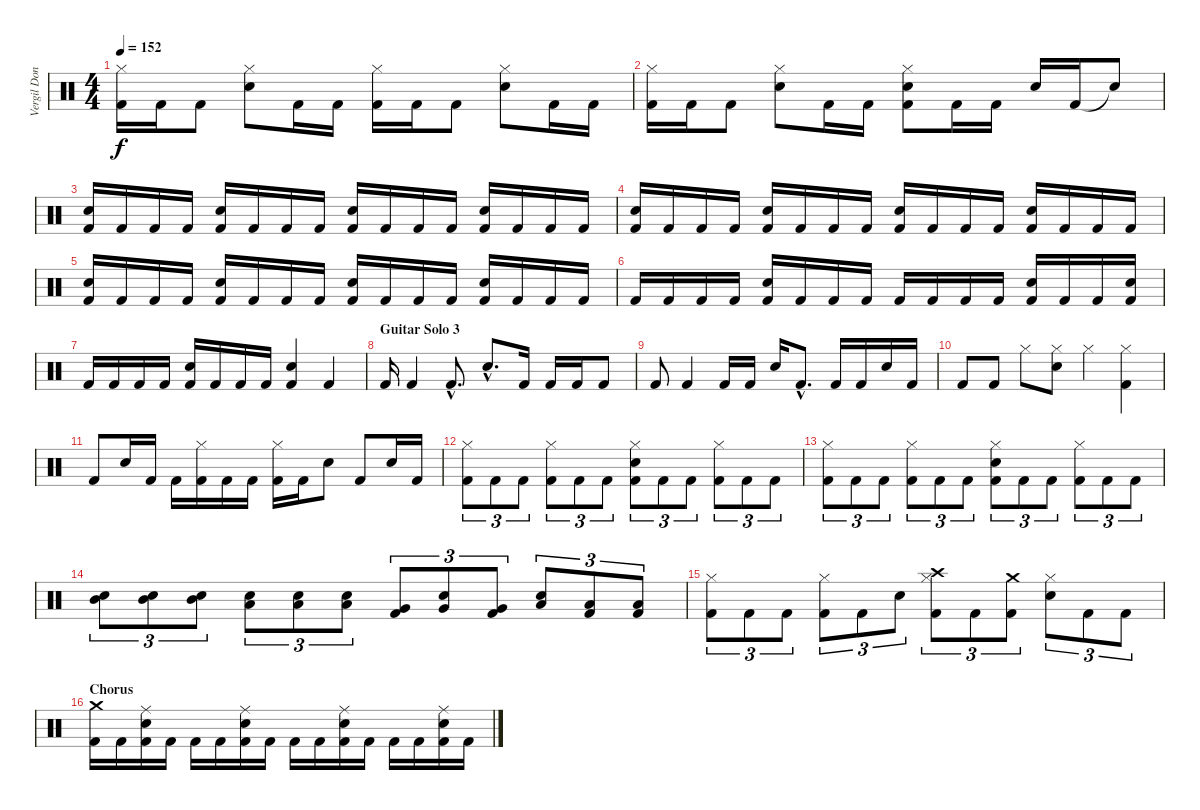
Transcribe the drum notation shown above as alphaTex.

\track ("Vergil Donati" "Vergil Don") {instrument percussion}
\staff {score}
\articulation defaults
\ts (4 4)
\tempo 152
\clef neutral
\ks c
("Hi-Hat (closed)" "Kick (hit) 2").16{dy f} "Kick (hit) 2".16 "Kick (hit) 2".8 ("Electric Snare (hit)" "Hi-Hat (closed)").8 "Kick (hit) 2".16 "Kick (hit) 2".16 ("Hi-Hat (closed)" "Kick (hit) 2").16 "Kick (hit) 2".16 "Kick (hit) 2".8 ("Electric Snare (hit)" "Hi-Hat (closed)").8 "Kick (hit) 2".16 "Kick (hit) 2".16 |
("Hi-Hat (closed)" "Kick (hit) 2").16 "Kick (hit) 2".16 "Kick (hit) 2".8 ("Electric Snare (hit)" "Hi-Hat (closed)").8 "Kick (hit) 2".16 "Kick (hit) 2".16 ("Electric Snare (hit)" "Hi-Hat (closed)" "Kick (hit) 2").8 "Kick (hit) 2".16 "Kick (hit) 2".16 "Electric Snare (hit)".16 "Kick (hit) 2".16 "Snare (hit)"{t}.8 |
("Electric Snare (hit)" "Kick (hit) 2").16 "Kick (hit) 2".16 "Kick (hit) 2".16 "Kick (hit) 2".16 ("Electric Snare (hit)" "Kick (hit) 2").16 "Kick (hit) 2".16 "Kick (hit) 2".16 "Kick (hit) 2".16 ("Electric Snare (hit)" "Kick (hit) 2").16 "Kick (hit) 2".16 "Kick (hit) 2".16 "Kick (hit) 2".16 ("Electric Snare (hit)" "Kick (hit) 2").16 "Kick (hit) 2".16 "Kick (hit) 2".16 "Kick (hit) 2".16 |
("Electric Snare (hit)" "Kick (hit) 2").16 "Kick (hit) 2".16 "Kick (hit) 2".16 "Kick (hit) 2".16 ("Electric Snare (hit)" "Kick (hit) 2").16 "Kick (hit) 2".16 "Kick (hit) 2".16 "Kick (hit) 2".16 ("Electric Snare (hit)" "Kick (hit) 2").16 "Kick (hit) 2".16 "Kick (hit) 2".16 "Kick (hit) 2".16 ("Electric Snare (hit)" "Kick (hit) 2").16 "Kick (hit) 2".16 "Kick (hit) 2".16 "Kick (hit) 2".16 |
("Electric Snare (hit)" "Kick (hit) 2").16 "Kick (hit) 2".16 "Kick (hit) 2".16 "Kick (hit) 2".16 ("Electric Snare (hit)" "Kick (hit) 2").16 "Kick (hit) 2".16 "Kick (hit) 2".16 "Kick (hit) 2".16 ("Electric Snare (hit)" "Kick (hit) 2").16 "Kick (hit) 2".16 "Kick (hit) 2".16 "Kick (hit) 2".16 ("Electric Snare (hit)" "Kick (hit) 2").16 "Kick (hit) 2".16 "Kick (hit) 2".16 "Kick (hit) 2".16 |
"Kick (hit) 2".16 "Kick (hit) 2".16 "Kick (hit) 2".16 "Kick (hit) 2".16 ("Electric Snare (hit)" "Kick (hit) 2").16 "Kick (hit) 2".16 "Kick (hit) 2".16 "Kick (hit) 2".16 "Kick (hit) 2".16 "Kick (hit) 2".16 "Kick (hit) 2".16 "Kick (hit) 2".16 ("Electric Snare (hit)" "Kick (hit) 2").16 "Kick (hit) 2".16 "Kick (hit) 2".16 ("Electric Snare (hit)" "Kick (hit) 2").16 |
"Kick (hit) 2".16 "Kick (hit) 2".16 "Kick (hit) 2".16 "Kick (hit) 2".16 ("Electric Snare (hit)" "Kick (hit) 2").16 "Kick (hit) 2".16 "Kick (hit) 2".16 "Kick (hit) 2".16 ("Electric Snare (hit)" "Kick (hit) 2").4 "Kick (hit) 2".4 |
\section ("" "Guitar Solo 3")
"Kick (hit) 2".16 "Kick (hit) 2".4 "Kick (hit) 2"{hac}.8{d} "Electric Snare (hit)"{hac}.8{d} "Kick (hit) 2".16 "Kick (hit) 2".16 "Kick (hit) 2".16 "Kick (hit) 2".8 |
"Kick (hit) 2".8 "Kick (hit) 2".4 "Kick (hit) 2".16 "Kick (hit) 2".16 "Electric Snare (hit)".16 "Kick (hit) 2"{hac}.8{d} "Kick (hit) 2".16 "Kick (hit) 2".16 "Electric Snare (hit)".16 "Kick (hit) 2".16 |
"Kick (hit) 2".8 "Kick (hit) 2".8 "Hi-Hat (closed)".8 ("Electric Snare (hit)" "Hi-Hat (closed)").8 "Hi-Hat (closed)".4 ("Hi-Hat (closed)" "Kick (hit) 2").4 |
"Kick (hit) 2".8 "Electric Snare (hit)".16 "Kick (hit) 2".16 "Kick (hit) 2".16 ("Hi-Hat (closed)" "Kick (hit) 2").16 "Kick (hit) 2".16 "Kick (hit) 2".16 ("Hi-Hat (closed)" "Kick (hit) 2").16 "Kick (hit) 2".16 "Electric Snare (hit)".8 "Kick (hit) 2".8 "Electric Snare (hit)".16 "Kick (hit) 2".16 |
("Hi-Hat (closed)" "Kick (hit) 2").8{tu (3 2)} "Kick (hit) 2".8{tu (3 2)} "Kick (hit) 2".8{tu (3 2)} ("Hi-Hat (closed)" "Kick (hit) 2").8{tu (3 2)} "Kick (hit) 2".8{tu (3 2)} "Kick (hit) 2".8{tu (3 2)} ("Electric Snare (hit)" "Hi-Hat (closed)" "Kick (hit) 2").8{tu (3 2)} "Kick (hit) 2".8{tu (3 2)} "Kick (hit) 2".8{tu (3 2)} ("Hi-Hat (closed)" "Kick (hit) 2").8{tu (3 2)} "Kick (hit) 2".8{tu (3 2)} "Kick (hit) 2".8{tu (3 2)} |
("Hi-Hat (closed)" "Kick (hit) 2").8{tu (3 2)} "Kick (hit) 2".8{tu (3 2)} "Kick (hit) 2".8{tu (3 2)} ("Hi-Hat (closed)" "Kick (hit) 2").8{tu (3 2)} "Kick (hit) 2".8{tu (3 2)} "Kick (hit) 2".8{tu (3 2)} ("Electric Snare (hit)" "Hi-Hat (closed)" "Kick (hit) 2").8{tu (3 2)} "Kick (hit) 2".8{tu (3 2)} "Kick (hit) 2".8{tu (3 2)} ("Hi-Hat (closed)" "Kick (hit) 2").8{tu (3 2)} "Kick (hit) 2".8{tu (3 2)} "Kick (hit) 2".8{tu (3 2)} |
("Mid Tom (hit)" "Electric Snare (hit)").8{tu (3 2)} ("Mid Tom (hit)" "Electric Snare (hit)").8{tu (3 2)} ("Mid Tom (hit)" "Electric Snare (hit)").8{tu (3 2)} ("Low Tom (hit)" "Electric Snare (hit)").8{tu (3 2)} ("Low Tom (hit)" "Electric Snare (hit)").8{tu (3 2)} ("Low Tom (hit)" "Electric Snare (hit)").8{tu (3 2)} ("Very Low Tom (hit)" "Kick (hit) 2").8{tu (3 2)} ("Very Low Tom (hit)" "Electric Snare (hit)").8{tu (3 2)} ("Very Low Tom (hit)" "Kick (hit) 2").8{tu (3 2)} ("Low Floor Tom (hit)" "Electric Snare (hit)").8{tu (3 2)} ("Low Floor Tom (hit)" "Kick (hit) 2").8{tu (3 2)} ("Low Floor Tom (hit)" "Kick (hit) 2").8{tu (3 2)} |
("Hi-Hat (closed)" "Kick (hit) 2").8{tu (3 2)} "Kick (hit) 2".8{tu (3 2)} "Kick (hit) 2".8{tu (3 2)} ("Hi-Hat (closed)" "Kick (hit) 2").8{tu (3 2)} "Kick (hit) 2".8{tu (3 2)} "Electric Snare (hit)".8{tu (3 2)} ("Crash high (hit)" "Hi-Hat (closed)" "Kick (hit) 2").8{tu (3 2)} "Kick (hit) 2".8{tu (3 2)} ("Crash medium (hit)" "Kick (hit) 2").8{tu (3 2)} ("Hi-Hat (closed)" "Electric Snare (hit)").8{tu (3 2)} "Kick (hit) 2".8{tu (3 2)} "Kick (hit) 2".8{tu (3 2)} |
\section ("" "Chorus")
("Crash medium (hit)" "Kick (hit) 2").16 "Kick (hit) 2".16 ("Electric Snare (hit)" "Ride (middle)" "Kick (hit) 2").16 "Kick (hit) 2".16 "Kick (hit) 2".16 "Kick (hit) 2".16 ("Electric Snare (hit)" "Ride (middle)" "Kick (hit) 2").16 "Kick (hit) 2".16 "Kick (hit) 2".16 "Kick (hit) 2".16 ("Electric Snare (hit)" "Ride (middle)" "Kick (hit) 2").16 "Kick (hit) 2".16 "Kick (hit) 2".16 "Kick (hit) 2".16 ("Electric Snare (hit)" "Ride (middle)" "Kick (hit) 2").16 "Kick (hit) 2".16
